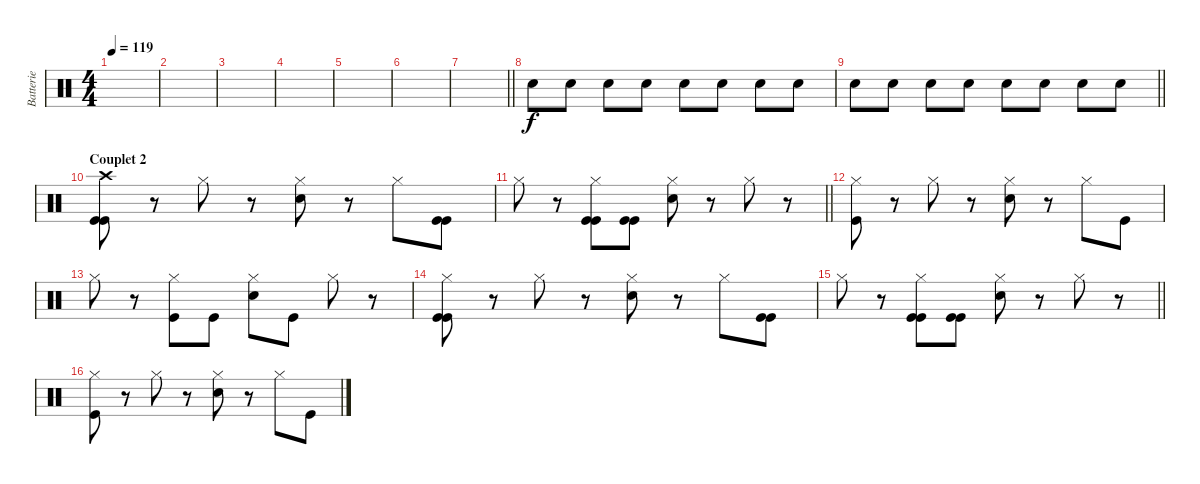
\track ("Batterie" "Batterie") {instrument percussion}
\staff {score}
\articulation defaults
\ts (4 4)
\tempo 119
\clef neutral
\ks c
|
|
|
|
|
|
\barLineRight lightlight
|
"Electric Snare (hit)".8 "Electric Snare (hit)".8 "Electric Snare (hit)".8 "Electric Snare (hit)".8 "Electric Snare (hit)".8 "Electric Snare (hit)".8 "Electric Snare (hit)".8 "Electric Snare (hit)".8 |
\barLineRight lightlight "Electric Snare (hit)".8 "Electric Snare (hit)".8 "Electric Snare (hit)".8 "Electric Snare (hit)".8 "Electric Snare (hit)".8 "Electric Snare (hit)".8 "Electric Snare (hit)".8 "Electric Snare (hit)".8
|
\section ("" "Couplet 2")
("Crash high (hit)" "Kick (hit)" "Kick (hit)").8 r.8 "Hi-Hat (closed)".8 r.8 ("Hi-Hat (closed)" "Electric Snare (hit)").8 r.8 "Hi-Hat (closed)".8 ("Kick (hit)" "Kick (hit)").8 |
\barLineRight lightlight "Hi-Hat (closed)".8
r.8 ("Hi-Hat (closed)" "Kick (hit)" "Kick (hit)").8 ("Kick (hit)" "Kick (hit)").8 ("Hi-Hat (closed)" "Electric Snare (hit)").8 r.8 "Hi-Hat (closed)".8 r.8 |
("Hi-Hat (closed)" "Kick (hit)").8 r.8 "Hi-Hat (closed)".8 r.8 ("Hi-Hat (closed)" "Electric Snare (hit)").8 r.8 "Hi-Hat (closed)".8 "Kick (hit)".8 |
"Hi-Hat (closed)".8 r.8 ("Hi-Hat (closed)" "Kick (hit)").8 "Kick (hit)".8 ("Hi-Hat (closed)" "Electric Snare (hit)").8 "Kick (hit)".8 "Hi-Hat (closed)".8 r.8 |
("Hi-Hat (closed)" "Kick (hit)" "Kick (hit)").8 r.8 "Hi-Hat (closed)".8 r.8 ("Hi-Hat (closed)" "Electric Snare (hit)").8 r.8 "Hi-Hat (closed)".8 ("Kick (hit)" "Kick (hit)").8 |
\barLineRight lightlight "Hi-Hat (closed)".8
r.8 ("Hi-Hat (closed)" "Kick (hit)" "Kick (hit)").8 ("Kick (hit)" "Kick (hit)").8 ("Hi-Hat (closed)" "Electric Snare (hit)").8 r.8 "Hi-Hat (closed)".8 r.8 |
("Hi-Hat (closed)" "Kick (hit)").8 r.8 "Hi-Hat (closed)".8 r.8 ("Hi-Hat (closed)" "Electric Snare (hit)").8 r.8 "Hi-Hat (closed)".8 "Kick (hit)".8
